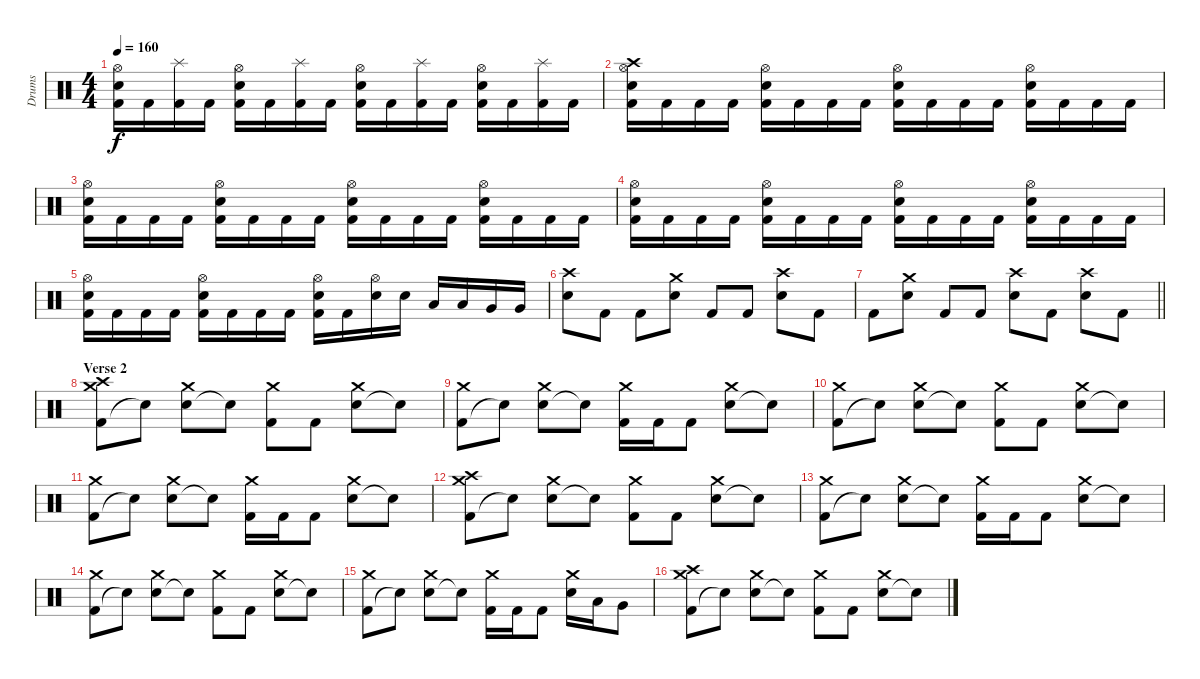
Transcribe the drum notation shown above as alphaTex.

\track ("Drums" "Drums") {instrument percussion}
\staff {score}
\articulation defaults
\ts (4 4)
\tempo 160
\clef neutral
\ks c
("Snare (hit) 2" "Kick (hit) 2" "Hi-Hat (open)").16{dy f} "Kick (hit) 2".16 ("Kick (hit) 2" "Splash (hit)").16 "Kick (hit) 2".16 ("Snare (hit) 2" "Kick (hit) 2" "Hi-Hat (open)").16 "Kick (hit) 2".16 ("Kick (hit) 2" "Splash (hit)").16 "Kick (hit) 2".16 ("Snare (hit) 2" "Kick (hit) 2" "Hi-Hat (open)").16 "Kick (hit) 2".16 ("Kick (hit) 2" "Splash (hit)").16 "Kick (hit) 2".16 ("Snare (hit) 2" "Kick (hit) 2" "Hi-Hat (open)").16 "Kick (hit) 2".16 ("Kick (hit) 2" "Splash (hit)").16 "Kick (hit) 2".16 |
("Snare (hit) 2" "Kick (hit) 2" "Hi-Hat (open)" "Crash high (hit)").16 "Kick (hit) 2".16 "Kick (hit) 2".16 "Kick (hit) 2".16 ("Snare (hit) 2" "Kick (hit) 2" "Hi-Hat (open)").16 "Kick (hit) 2".16 "Kick (hit) 2".16 "Kick (hit) 2".16 ("Snare (hit) 2" "Kick (hit) 2" "Hi-Hat (open)").16 "Kick (hit) 2".16 "Kick (hit) 2".16 "Kick (hit) 2".16 ("Snare (hit) 2" "Kick (hit) 2" "Hi-Hat (open)").16 "Kick (hit) 2".16 "Kick (hit) 2".16 "Kick (hit) 2".16 |
("Snare (hit) 2" "Kick (hit) 2" "Hi-Hat (open)").16 "Kick (hit) 2".16 "Kick (hit) 2".16 "Kick (hit) 2".16 ("Snare (hit) 2" "Kick (hit) 2" "Hi-Hat (open)").16 "Kick (hit) 2".16 "Kick (hit) 2".16 "Kick (hit) 2".16 ("Snare (hit) 2" "Kick (hit) 2" "Hi-Hat (open)").16 "Kick (hit) 2".16 "Kick (hit) 2".16 "Kick (hit) 2".16 ("Snare (hit) 2" "Kick (hit) 2" "Hi-Hat (open)").16 "Kick (hit) 2".16 "Kick (hit) 2".16 "Kick (hit) 2".16 |
("Snare (hit) 2" "Kick (hit) 2" "Hi-Hat (open)").16 "Kick (hit) 2".16 "Kick (hit) 2".16 "Kick (hit) 2".16 ("Snare (hit) 2" "Kick (hit) 2" "Hi-Hat (open)").16 "Kick (hit) 2".16 "Kick (hit) 2".16 "Kick (hit) 2".16 ("Snare (hit) 2" "Kick (hit) 2" "Hi-Hat (open)").16 "Kick (hit) 2".16 "Kick (hit) 2".16 "Kick (hit) 2".16 ("Snare (hit) 2" "Kick (hit) 2" "Hi-Hat (open)").16 "Kick (hit) 2".16 "Kick (hit) 2".16 "Kick (hit) 2".16 |
("Snare (hit) 2" "Kick (hit) 2" "Hi-Hat (open)").16 "Kick (hit) 2".16 "Kick (hit) 2".16 "Kick (hit) 2".16 ("Snare (hit) 2" "Kick (hit) 2" "Hi-Hat (open)").16 "Kick (hit) 2".16 "Kick (hit) 2".16 "Kick (hit) 2".16 ("Snare (hit) 2" "Kick (hit) 2" "Hi-Hat (open)").16 "Kick (hit) 2".16 ("Snare (hit) 2" "Hi-Hat (open)").16 "Snare (hit) 2".16 "Low Tom (hit)".16 "Low Tom (hit)".16 "Very Low Tom (hit)".16 "Very Low Tom (hit)".16 |
("Snare (hit) 2" "Crash high (hit)").8 "Kick (hit) 2".8 "Kick (hit) 2".8 ("Snare (hit) 2" "Crash medium (hit)").8 "Kick (hit) 2".8 "Kick (hit) 2".8 ("Snare (hit) 2" "Crash high (hit)").8 "Kick (hit) 2".8 |
\barLineRight lightlight "Kick (hit) 2".8
("Snare (hit) 2" "Crash medium (hit)").8 "Kick (hit) 2".8 "Kick (hit) 2".8 ("Snare (hit) 2" "Crash high (hit)").8 "Kick (hit) 2".8 ("Snare (hit) 2" "Crash high (hit)").8 "Kick (hit) 2".8 |
\section ("" "Verse 2")
("Kick (hit) 2" "Crash medium (hit)" "Crash high (hit)").8 "Snare (hit)"{t}.8 ("Snare (hit) 2" "Crash medium (hit)").8 "Snare (hit)"{t}.8 ("Kick (hit) 2" "Crash medium (hit)").8 "Kick (hit) 2".8 ("Snare (hit) 2" "Crash medium (hit)").8 "Snare (hit)"{t}.8 |
("Kick (hit) 2" "Crash medium (hit)").8 "Snare (hit)"{t}.8 ("Snare (hit) 2" "Crash medium (hit)").8 "Snare (hit)"{t}.8 ("Kick (hit) 2" "Crash medium (hit)").16 "Kick (hit) 2".16 "Kick (hit) 2".8 ("Snare (hit) 2" "Crash medium (hit)").8 "Snare (hit)"{t}.8 |
("Kick (hit) 2" "Crash medium (hit)").8 "Snare (hit)"{t}.8 ("Snare (hit) 2" "Crash medium (hit)").8 "Snare (hit)"{t}.8 ("Kick (hit) 2" "Crash medium (hit)").8 "Kick (hit) 2".8 ("Snare (hit) 2" "Crash medium (hit)").8 "Snare (hit)"{t}.8 |
("Kick (hit) 2" "Crash medium (hit)").8 "Snare (hit)"{t}.8 ("Snare (hit) 2" "Crash medium (hit)").8 "Snare (hit)"{t}.8 ("Kick (hit) 2" "Crash medium (hit)").16 "Kick (hit) 2".16 "Kick (hit) 2".8 ("Snare (hit) 2" "Crash medium (hit)").8 "Snare (hit)"{t}.8 |
("Kick (hit) 2" "Crash medium (hit)" "Crash high (hit)").8 "Snare (hit)"{t}.8 ("Snare (hit) 2" "Crash medium (hit)").8 "Snare (hit)"{t}.8 ("Kick (hit) 2" "Crash medium (hit)").8 "Kick (hit) 2".8 ("Snare (hit) 2" "Crash medium (hit)").8 "Snare (hit)"{t}.8 |
("Kick (hit) 2" "Crash medium (hit)").8 "Snare (hit)"{t}.8 ("Snare (hit) 2" "Crash medium (hit)").8 "Snare (hit)"{t}.8 ("Kick (hit) 2" "Crash medium (hit)").16 "Kick (hit) 2".16 "Kick (hit) 2".8 ("Snare (hit) 2" "Crash medium (hit)").8 "Snare (hit)"{t}.8 |
("Kick (hit) 2" "Crash medium (hit)").8 "Snare (hit)"{t}.8 ("Snare (hit) 2" "Crash medium (hit)").8 "Snare (hit)"{t}.8 ("Kick (hit) 2" "Crash medium (hit)").8 "Kick (hit) 2".8 ("Snare (hit) 2" "Crash medium (hit)").8 "Snare (hit)"{t}.8 |
("Kick (hit) 2" "Crash medium (hit)").8 "Snare (hit)"{t}.8 ("Snare (hit) 2" "Crash medium (hit)").8 "Snare (hit)"{t}.8 ("Kick (hit) 2" "Crash medium (hit)").16 "Kick (hit) 2".16 "Kick (hit) 2".8 ("Snare (hit) 2" "Crash medium (hit)").16 "Low Tom (hit)".16 "Very Low Tom (hit)".8 |
("Kick (hit) 2" "Crash medium (hit)" "Crash high (hit)").8 "Snare (hit)"{t}.8 ("Snare (hit) 2" "Crash medium (hit)").8 "Snare (hit)"{t}.8 ("Kick (hit) 2" "Crash medium (hit)").8 "Kick (hit) 2".8 ("Snare (hit) 2" "Crash medium (hit)").8 "Snare (hit)"{t}.8
